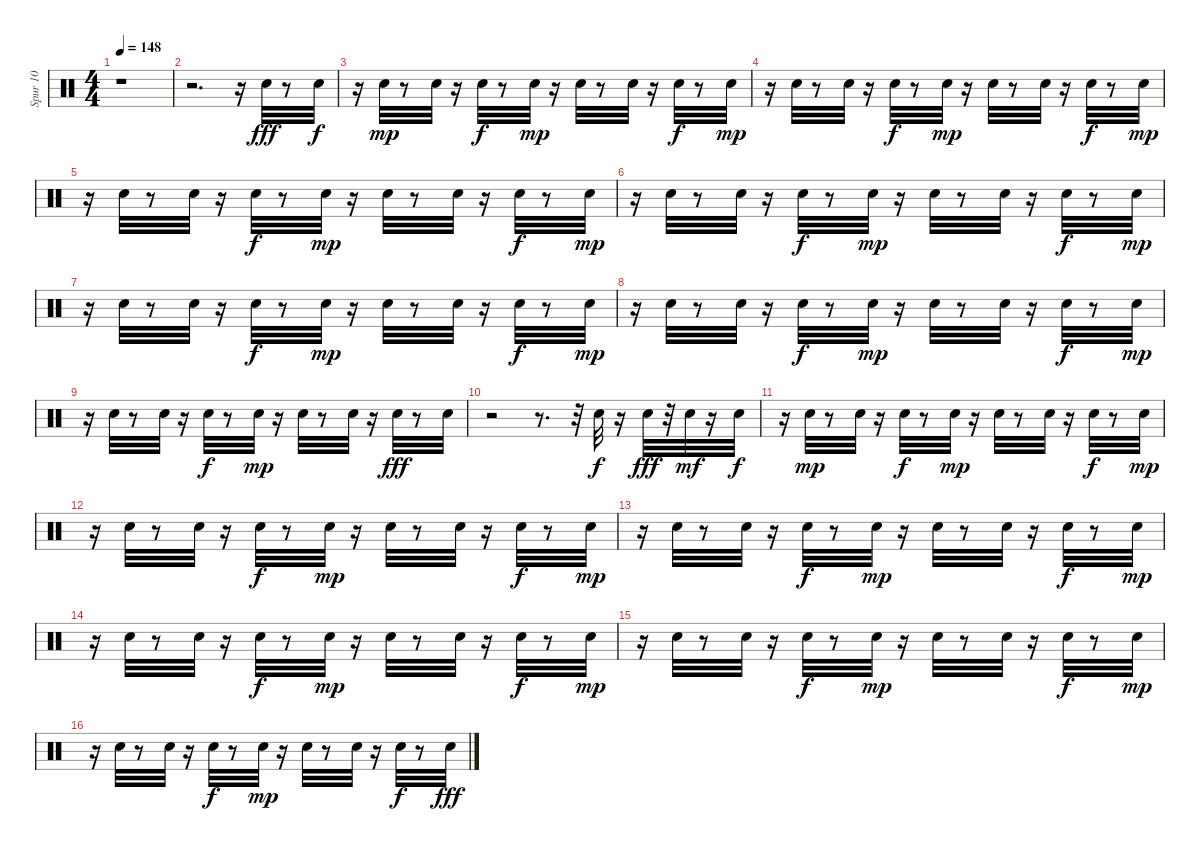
\track ("Spur 10" "Spur 10") {instrument percussion}
\staff {score}
\articulation defaults
\ts (4 4)
\tempo 148
\clef neutral
\ks c
r.1{dy fff} |
r.2{d} r.16 "Snare (hit) 2".32 r.8 "Snare (hit) 2".32{dy f} |
r.16 "Snare (hit) 2".32{dy mp} r.8 "Snare (hit) 2".32 r.16 "Snare (hit) 2".32{dy f} r.8 "Snare (hit) 2".32{dy mp} r.16 "Snare (hit) 2".32 r.8 "Snare (hit) 2".32 r.16 "Snare (hit) 2".32{dy f} r.8 "Snare (hit) 2".32{dy mp} |
r.16 "Snare (hit) 2".32 r.8 "Snare (hit) 2".32 r.16 "Snare (hit) 2".32{dy f} r.8 "Snare (hit) 2".32{dy mp} r.16 "Snare (hit) 2".32 r.8 "Snare (hit) 2".32 r.16 "Snare (hit) 2".32{dy f} r.8 "Snare (hit) 2".32{dy mp} |
r.16 "Snare (hit) 2".32 r.8 "Snare (hit) 2".32 r.16 "Snare (hit) 2".32{dy f} r.8 "Snare (hit) 2".32{dy mp} r.16 "Snare (hit) 2".32 r.8 "Snare (hit) 2".32 r.16 "Snare (hit) 2".32{dy f} r.8 "Snare (hit) 2".32{dy mp} |
r.16 "Snare (hit) 2".32 r.8 "Snare (hit) 2".32 r.16 "Snare (hit) 2".32{dy f} r.8 "Snare (hit) 2".32{dy mp} r.16 "Snare (hit) 2".32 r.8 "Snare (hit) 2".32 r.16 "Snare (hit) 2".32{dy f} r.8 "Snare (hit) 2".32{dy mp} |
r.16 "Snare (hit) 2".32 r.8 "Snare (hit) 2".32 r.16 "Snare (hit) 2".32{dy f} r.8 "Snare (hit) 2".32{dy mp} r.16 "Snare (hit) 2".32 r.8 "Snare (hit) 2".32 r.16 "Snare (hit) 2".32{dy f} r.8 "Snare (hit) 2".32{dy mp} |
r.16 "Snare (hit) 2".32 r.8 "Snare (hit) 2".32 r.16 "Snare (hit) 2".32{dy f} r.8 "Snare (hit) 2".32{dy mp} r.16 "Snare (hit) 2".32 r.8 "Snare (hit) 2".32 r.16 "Snare (hit) 2".32{dy f} r.8 "Snare (hit) 2".32{dy mp} |
r.16 "Snare (hit) 2".32 r.8 "Snare (hit) 2".32 r.16 "Snare (hit) 2".32{dy f} r.8 "Snare (hit) 2".32{dy mp} r.16 "Snare (hit) 2".32 r.8 "Snare (hit) 2".32 r.16 "Snare (hit) 2".32{dy fff} r.8 "Snare (hit) 2".32 |
r.2 r.8{d} r.32 "Snare (hit) 2".32{dy f} r.16 "Snare (hit) 2".32{dy fff} r.32 "Snare (hit) 2".32{dy mf} r.16 "Snare (hit) 2".32{dy f} |
r.16 "Snare (hit) 2".32{dy mp} r.8 "Snare (hit) 2".32 r.16 "Snare (hit) 2".32{dy f} r.8 "Snare (hit) 2".32{dy mp} r.16 "Snare (hit) 2".32 r.8 "Snare (hit) 2".32 r.16 "Snare (hit) 2".32{dy f} r.8 "Snare (hit) 2".32{dy mp} |
r.16 "Snare (hit) 2".32 r.8 "Snare (hit) 2".32 r.16 "Snare (hit) 2".32{dy f} r.8 "Snare (hit) 2".32{dy mp} r.16 "Snare (hit) 2".32 r.8 "Snare (hit) 2".32 r.16 "Snare (hit) 2".32{dy f} r.8 "Snare (hit) 2".32{dy mp} |
r.16 "Snare (hit) 2".32 r.8 "Snare (hit) 2".32 r.16 "Snare (hit) 2".32{dy f} r.8 "Snare (hit) 2".32{dy mp} r.16 "Snare (hit) 2".32 r.8 "Snare (hit) 2".32 r.16 "Snare (hit) 2".32{dy f} r.8 "Snare (hit) 2".32{dy mp} |
r.16 "Snare (hit) 2".32 r.8 "Snare (hit) 2".32 r.16 "Snare (hit) 2".32{dy f} r.8 "Snare (hit) 2".32{dy mp} r.16 "Snare (hit) 2".32 r.8 "Snare (hit) 2".32 r.16 "Snare (hit) 2".32{dy f} r.8 "Snare (hit) 2".32{dy mp} |
r.16 "Snare (hit) 2".32 r.8 "Snare (hit) 2".32 r.16 "Snare (hit) 2".32{dy f} r.8 "Snare (hit) 2".32{dy mp} r.16 "Snare (hit) 2".32 r.8 "Snare (hit) 2".32 r.16 "Snare (hit) 2".32{dy f} r.8 "Snare (hit) 2".32{dy mp} |
r.16 "Snare (hit) 2".32 r.8 "Snare (hit) 2".32 r.16 "Snare (hit) 2".32{dy f} r.8 "Snare (hit) 2".32{dy mp} r.16 "Snare (hit) 2".32 r.8 "Snare (hit) 2".32 r.16 "Snare (hit) 2".32{dy f} r.8 "Snare (hit) 2".32{dy fff}
